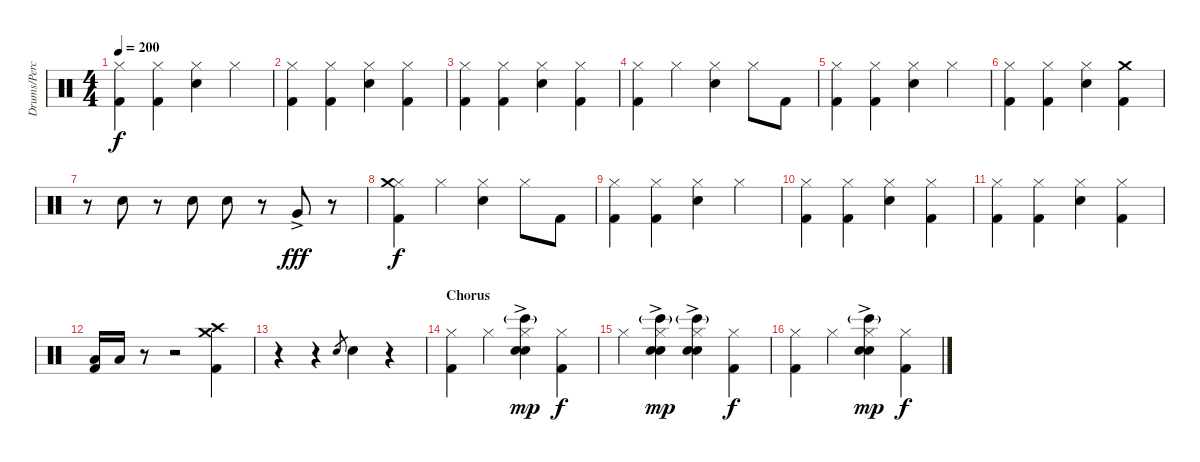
\track ("Drums/Percussion" "Drums/Perc") {instrument percussion}
\staff {score}
\articulation defaults
\ts (4 4)
\tempo 200
\clef neutral
\ks c
("Kick (hit) 2" "Hi-Hat (closed)").4{dy f} ("Kick (hit) 2" "Hi-Hat (closed)").4 ("Snare (hit) 2" "Hi-Hat (closed)").4 "Hi-Hat (closed)".4 |
("Kick (hit) 2" "Hi-Hat (closed)").4 ("Kick (hit) 2" "Hi-Hat (closed)").4 ("Snare (hit) 2" "Hi-Hat (closed)").4 ("Kick (hit) 2" "Hi-Hat (closed)").4 |
("Kick (hit) 2" "Hi-Hat (closed)").4 ("Kick (hit) 2" "Hi-Hat (closed)").4 ("Snare (hit) 2" "Hi-Hat (closed)").4 ("Kick (hit) 2" "Hi-Hat (closed)").4 |
("Kick (hit) 2" "Hi-Hat (closed)").4 "Hi-Hat (closed)".4 ("Snare (hit) 2" "Hi-Hat (closed)").4 "Hi-Hat (closed)".8 "Kick (hit) 2".8 |
("Kick (hit) 2" "Hi-Hat (closed)").4 ("Kick (hit) 2" "Hi-Hat (closed)").4 ("Snare (hit) 2" "Hi-Hat (closed)").4 "Hi-Hat (closed)".4 |
("Kick (hit) 2" "Hi-Hat (closed)").4 ("Kick (hit) 2" "Hi-Hat (closed)").4 ("Snare (hit) 2" "Hi-Hat (closed)").4 ("Kick (hit) 2" "Crash medium (hit)").4 |
r.8 "Snare (hit) 2".8 r.8 "Snare (hit) 2".8 "Snare (hit) 2".8 r.8 "Very Low Tom (hit)"{ac}.8{dy fff} r.8 |
("Kick (hit) 2" "Hi-Hat (closed)" "Crash medium (hit)").4{dy f} "Hi-Hat (closed)".4 ("Snare (hit) 2" "Hi-Hat (closed)").4 "Hi-Hat (closed)".8 "Kick (hit) 2".8 |
("Kick (hit) 2" "Hi-Hat (closed)").4 ("Kick (hit) 2" "Hi-Hat (closed)").4 ("Snare (hit) 2" "Hi-Hat (closed)").4 "Hi-Hat (closed)".4 |
("Kick (hit) 2" "Hi-Hat (closed)").4 ("Kick (hit) 2" "Hi-Hat (closed)").4 ("Snare (hit) 2" "Hi-Hat (closed)").4 ("Kick (hit) 2" "Hi-Hat (closed)").4 |
("Kick (hit) 2" "Hi-Hat (closed)").4 ("Kick (hit) 2" "Hi-Hat (closed)").4 ("Snare (hit) 2" "Hi-Hat (closed)").4 ("Kick (hit) 2" "Hi-Hat (closed)").4 |
("Kick (hit) 2" "Low Floor Tom (hit)").16 "Low Floor Tom (hit)".16 r.8 r.2 ("Kick (hit) 2" "Crash high (hit)" "Crash medium (hit)").4 |
r.4 r.4 "Snare (hit) 2".8{gr} "Snare (hit) 2".4 r.4 |
\section ("" "Chorus")
("Kick (hit) 2" "Hi-Hat (closed)").4 "Hi-Hat (closed)".4 ("Snare (hit) 2" "Hi-Hat (closed)" "Hand Clap (hit)"{ac} "Bongo High (hit)"{g}).4{dy mp} ("Kick (hit) 2" "Hi-Hat (closed)").4{dy f} |
"Hi-Hat (closed)".4 ("Snare (hit) 2" "Hi-Hat (closed)" "Hand Clap (hit)"{ac} "Bongo High (hit)"{g}).4{dy mp} ("Snare (hit) 2" "Hi-Hat (closed)" "Hand Clap (hit)"{ac} "Bongo High (hit)"{g}).4 ("Kick (hit) 2" "Hi-Hat (closed)").4{dy f} |
("Kick (hit) 2" "Hi-Hat (closed)").4 "Hi-Hat (closed)".4 ("Snare (hit) 2" "Hi-Hat (closed)" "Hand Clap (hit)"{ac} "Bongo High (hit)"{g}).4{dy mp} ("Kick (hit) 2" "Hi-Hat (closed)").4{dy f}
